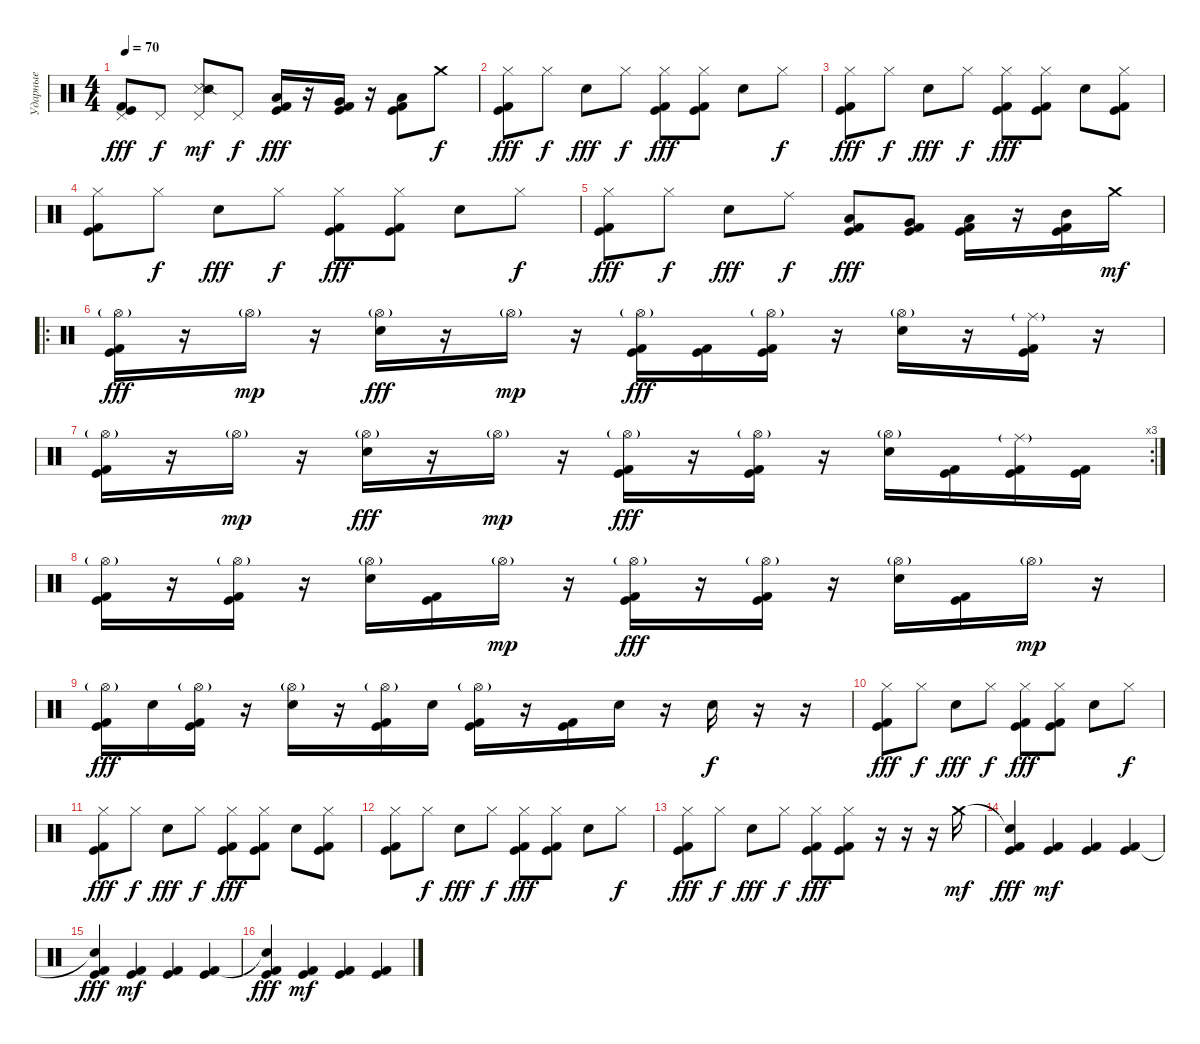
\track ("Ударные" "Ударные") {instrument percussion}
\staff {score}
\articulation defaults
\ts (4 4)
\tempo 70
\clef neutral
\ks c
("Pedal Hi-Hat (hit)" "Kick (hit)" "Kick (hit) 2").8{dy fff} "Pedal Hi-Hat (hit)".8{dy f} ("Pedal Hi-Hat (hit)" "Snare (side stick) 3" "Snare (side stick) 2").8{dy mf} "Pedal Hi-Hat (hit)".8{dy f} ("Kick (hit) 2" "Kick (hit)" "Low Floor Tom (hit)").16{dy fff} r.16 ("Kick (hit) 2" "Kick (hit)" "Very Low Tom (hit)").16 r.16 ("Kick (hit)" "Kick (hit) 2" "Low Tom (hit)").8 "Crash medium (hit)".8{dy f} |
("Hi-Hat (closed)" "Kick (hit)" "Kick (hit) 2").8{dy fff} "Hi-Hat (closed)".8{dy f} "Snare (hit) 2".8{dy fff} "Hi-Hat (closed)".8{dy f} ("Hi-Hat (closed)" "Kick (hit)" "Kick (hit) 2").8{dy fff} ("Hi-Hat (closed)" "Kick (hit)" "Kick (hit) 2").8 "Snare (hit) 2".8 "Hi-Hat (closed)".8{dy f} |
("Hi-Hat (closed)" "Kick (hit)" "Kick (hit) 2").8{dy fff} "Hi-Hat (closed)".8{dy f} "Snare (hit) 2".8{dy fff} "Hi-Hat (closed)".8{dy f} ("Hi-Hat (closed)" "Kick (hit)" "Kick (hit) 2").8{dy fff} ("Hi-Hat (closed)" "Kick (hit)" "Kick (hit) 2").8 "Snare (hit) 2".8 ("Hi-Hat (closed)" "Kick (hit)" "Kick (hit) 2").8 |
("Hi-Hat (closed)" "Kick (hit)" "Kick (hit) 2").8 "Hi-Hat (closed)".8{dy f} "Snare (hit) 2".8{dy fff} "Hi-Hat (closed)".8{dy f} ("Hi-Hat (closed)" "Kick (hit)" "Kick (hit) 2").8{dy fff} ("Hi-Hat (closed)" "Kick (hit)" "Kick (hit) 2").8 "Snare (hit) 2".8 "Hi-Hat (closed)".8{dy f} |
("Hi-Hat (closed)" "Kick (hit)" "Kick (hit) 2").8{dy fff} "Hi-Hat (closed)".8{dy f} "Snare (hit) 2".8{dy fff} "Ride (middle)".8{dy f} ("Kick (hit)" "Kick (hit) 2" "Low Floor Tom (hit)").8{dy fff} ("Kick (hit)" "Kick (hit) 2" "Very Low Tom (hit)").8 ("Kick (hit) 2" "Kick (hit)" "Low Tom (hit)").16 r.16 ("Kick (hit)" "Kick (hit) 2" "Mid Tom (hit)").16 "Crash medium (hit)".16{dy mf} |
\ro
("Hi-Hat (open)"{g} "Kick (hit) 2" "Kick (hit)").16{dy fff} r.16 "Hi-Hat (open)"{g}.16{dy mp} r.16 ("Hi-Hat (open)"{g} "Snare (hit) 2").16{dy fff} r.16 "Hi-Hat (open)"{g}.16{dy mp} r.16 ("Hi-Hat (open)"{g} "Kick (hit) 2" "Kick (hit)").16{dy fff} ("Kick (hit)" "Kick (hit) 2").16 ("Hi-Hat (open)"{g} "Kick (hit) 2" "Kick (hit)").16 r.16 ("Hi-Hat (open)"{g} "Snare (hit) 2").16 r.16 ("Ride (middle)"{g} "Kick (hit) 2" "Kick (hit)").16 r.16 |
\rc 3
("Hi-Hat (open)"{g} "Kick (hit) 2" "Kick (hit)").16 r.16 "Hi-Hat (open)"{g}.16{dy mp} r.16 ("Hi-Hat (open)"{g} "Snare (hit) 2").16{dy fff} r.16 "Hi-Hat (open)"{g}.16{dy mp} r.16 ("Hi-Hat (open)"{g} "Kick (hit) 2" "Kick (hit)").16{dy fff} r.16 ("Hi-Hat (open)"{g} "Kick (hit) 2" "Kick (hit)").16 r.16 ("Hi-Hat (open)"{g} "Snare (hit) 2").16 ("Kick (hit) 2" "Kick (hit)").16 ("Ride (middle)"{g} "Kick (hit)" "Kick (hit) 2").16 ("Kick (hit)" "Kick (hit) 2").16 |
("Hi-Hat (open)"{g} "Kick (hit) 2" "Kick (hit)").16 r.16 ("Hi-Hat (open)"{g} "Kick (hit) 2" "Kick (hit)").16 r.16 ("Hi-Hat (open)"{g} "Snare (hit) 2").16 ("Kick (hit) 2" "Kick (hit)").16 "Hi-Hat (open)"{g}.16{dy mp} r.16 ("Hi-Hat (open)"{g} "Kick (hit) 2" "Kick (hit)").16{dy fff} r.16 ("Hi-Hat (open)"{g} "Kick (hit) 2" "Kick (hit)").16 r.16 ("Hi-Hat (open)"{g} "Snare (hit) 2").16 ("Kick (hit) 2" "Kick (hit)").16 "Hi-Hat (open)"{g}.16{dy mp} r.16 |
("Hi-Hat (open)"{g} "Kick (hit) 2" "Kick (hit)").16{dy fff} "Snare (hit) 2".16 ("Hi-Hat (open)"{g} "Kick (hit) 2" "Kick (hit)").16 r.16 ("Hi-Hat (open)"{g} "Snare (hit) 2").16 r.16 ("Hi-Hat (open)"{g} "Kick (hit) 2" "Kick (hit)").16 "Snare (hit) 2".16 ("Hi-Hat (open)"{g} "Kick (hit) 2" "Kick (hit)").16 r.16 ("Kick (hit)" "Kick (hit) 2").16 "Snare (hit) 2".16 r.16 "Snare (hit) 2".16{dy f} r.16 r.16 |
("Hi-Hat (closed)" "Kick (hit)" "Kick (hit) 2").8{dy fff} "Hi-Hat (closed)".8{dy f} "Snare (hit) 2".8{dy fff} "Hi-Hat (closed)".8{dy f} ("Hi-Hat (closed)" "Kick (hit)" "Kick (hit) 2").8{dy fff} ("Hi-Hat (closed)" "Kick (hit)" "Kick (hit) 2").8 "Snare (hit) 2".8 "Hi-Hat (closed)".8{dy f} |
("Hi-Hat (closed)" "Kick (hit)" "Kick (hit) 2").8{dy fff} "Hi-Hat (closed)".8{dy f} "Snare (hit) 2".8{dy fff} "Hi-Hat (closed)".8{dy f} ("Hi-Hat (closed)" "Kick (hit)" "Kick (hit) 2").8{dy fff} ("Hi-Hat (closed)" "Kick (hit)" "Kick (hit) 2").8 "Snare (hit) 2".8 ("Hi-Hat (closed)" "Kick (hit)" "Kick (hit) 2").8 |
("Hi-Hat (closed)" "Kick (hit)" "Kick (hit) 2").8 "Hi-Hat (closed)".8{dy f} "Snare (hit) 2".8{dy fff} "Hi-Hat (closed)".8{dy f} ("Hi-Hat (closed)" "Kick (hit)" "Kick (hit) 2").8{dy fff} ("Hi-Hat (closed)" "Kick (hit)" "Kick (hit) 2").8 "Snare (hit) 2".8 "Hi-Hat (closed)".8{dy f} |
("Hi-Hat (closed)" "Kick (hit)" "Kick (hit) 2").8{dy fff} "Hi-Hat (closed)".8{dy f} "Snare (hit) 2".8{dy fff} "Hi-Hat (closed)".8{dy f} ("Hi-Hat (closed)" "Kick (hit)" "Kick (hit) 2").8{dy fff} ("Hi-Hat (closed)" "Kick (hit)" "Kick (hit) 2").8 r.16 r.16 r.16 "Crash medium (hit)".16{dy mf} |
("Snare (hit)"{t} "Kick (hit)" "Kick (hit) 2").4{dy fff} ("Kick (hit)" "Kick (hit) 2").4{dy mf} ("Kick (hit)" "Kick (hit) 2").4 ("Kick (hit) 2" "Kick (hit)").4 |
("Snare (hit)"{t} "Kick (hit)" "Kick (hit) 2").4{dy fff} ("Kick (hit)" "Kick (hit) 2").4{dy mf} ("Kick (hit)" "Kick (hit) 2").4 ("Kick (hit) 2" "Kick (hit)").4 |
("Snare (hit)"{t} "Kick (hit)" "Kick (hit) 2").4{dy fff} ("Kick (hit)" "Kick (hit) 2").4{dy mf} ("Kick (hit)" "Kick (hit) 2").4 ("Kick (hit) 2" "Kick (hit)").4
